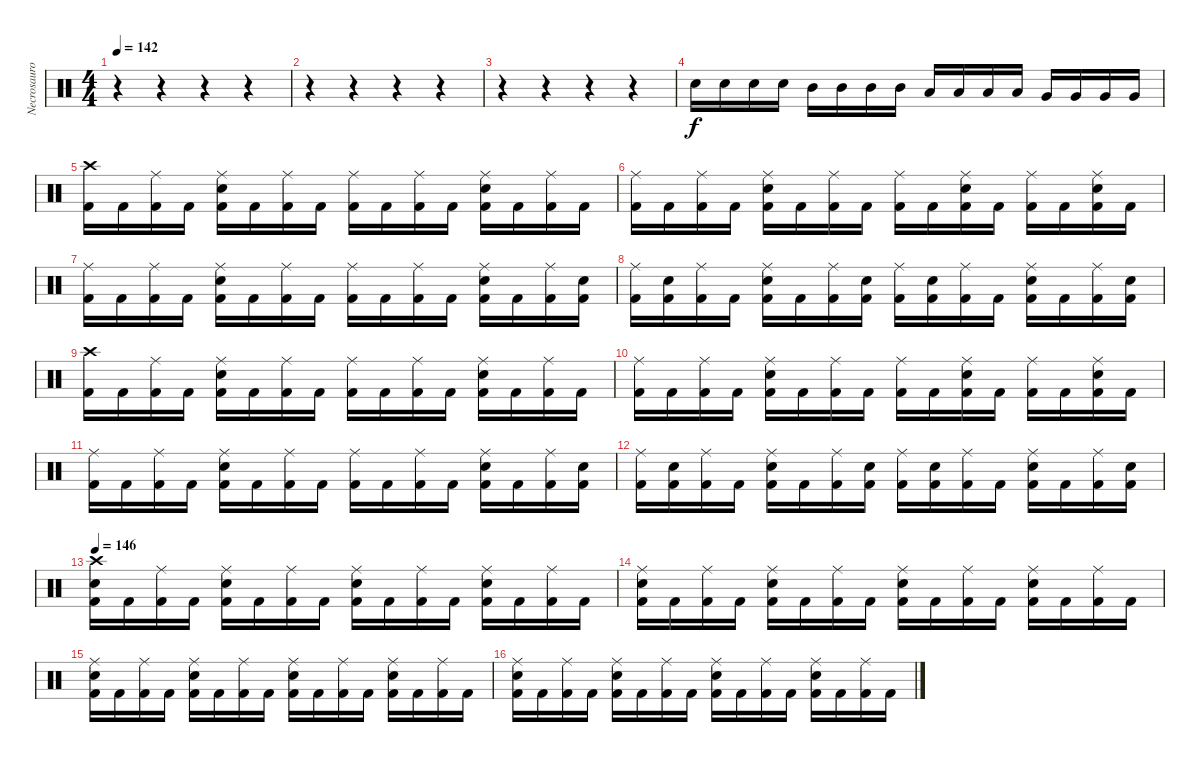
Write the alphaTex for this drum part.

\track ("Necrosauron" "Necrosauro") {instrument percussion}
\staff {score}
\articulation defaults
\ts (4 4)
\tempo 142
\clef neutral
\ks c
r.4{dy f} r.4 r.4 r.4 |
r.4 r.4 r.4 r.4 |
r.4 r.4 r.4 r.4 |
"Snare (hit) 2".16 "Snare (hit) 2".16 "Snare (hit) 2".16 "Snare (hit) 2".16 "Mid Tom (hit)".16 "Mid Tom (hit)".16 "Mid Tom (hit)".16 "Mid Tom (hit)".16 "Low Tom (hit)".16 "Low Tom (hit)".16 "Low Tom (hit)".16 "Low Tom (hit)".16 "Very Low Tom (hit)".16 "Very Low Tom (hit)".16 "Very Low Tom (hit)".16 "Very Low Tom (hit)".16 |
("Crash high (hit)" "Kick (hit) 2").16 "Kick (hit) 2".16 ("Ride (middle)" "Kick (hit) 2").16 "Kick (hit) 2".16 ("Ride (middle)" "Snare (hit) 2" "Kick (hit) 2").16 "Kick (hit) 2".16 ("Ride (middle)" "Kick (hit) 2").16 "Kick (hit) 2".16 ("Ride (middle)" "Kick (hit) 2").16 "Kick (hit) 2".16 ("Ride (middle)" "Kick (hit) 2").16 "Kick (hit) 2".16 ("Ride (middle)" "Snare (hit) 2" "Kick (hit) 2").16 "Kick (hit) 2".16 ("Ride (middle)" "Kick (hit) 2").16 "Kick (hit) 2".16 |
("Ride (middle)" "Kick (hit) 2").16 "Kick (hit) 2".16 ("Ride (middle)" "Kick (hit) 2").16 "Kick (hit) 2".16 ("Ride (middle)" "Snare (hit) 2" "Kick (hit) 2").16 "Kick (hit) 2".16 ("Ride (middle)" "Kick (hit) 2").16 "Kick (hit) 2".16 ("Ride (middle)" "Kick (hit) 2").16 "Kick (hit) 2".16 ("Ride (middle)" "Snare (hit) 2" "Kick (hit) 2").16 "Kick (hit) 2".16 ("Ride (middle)" "Kick (hit) 2").16 "Kick (hit) 2".16 ("Ride (middle)" "Snare (hit) 2" "Kick (hit) 2").16 "Kick (hit) 2".16 |
("Ride (middle)" "Kick (hit) 2").16 "Kick (hit) 2".16 ("Ride (middle)" "Kick (hit) 2").16 "Kick (hit) 2".16 ("Ride (middle)" "Snare (hit) 2" "Kick (hit) 2").16 "Kick (hit) 2".16 ("Ride (middle)" "Kick (hit) 2").16 "Kick (hit) 2".16 ("Ride (middle)" "Kick (hit) 2").16 "Kick (hit) 2".16 ("Ride (middle)" "Kick (hit) 2").16 "Kick (hit) 2".16 ("Ride (middle)" "Snare (hit) 2" "Kick (hit) 2").16 "Kick (hit) 2".16 ("Ride (middle)" "Kick (hit) 2").16 ("Snare (hit) 2" "Kick (hit) 2").16 |
("Ride (middle)" "Kick (hit) 2").16 ("Snare (hit) 2" "Kick (hit) 2").16 ("Ride (middle)" "Kick (hit) 2").16 "Kick (hit) 2".16 ("Ride (middle)" "Snare (hit) 2" "Kick (hit) 2").16 "Kick (hit) 2".16 ("Ride (middle)" "Kick (hit) 2").16 ("Snare (hit) 2" "Kick (hit) 2").16 ("Ride (middle)" "Kick (hit) 2").16 ("Snare (hit) 2" "Kick (hit) 2").16 ("Ride (middle)" "Kick (hit) 2").16 "Kick (hit) 2".16 ("Ride (middle)" "Snare (hit) 2" "Kick (hit) 2").16 "Kick (hit) 2".16 ("Ride (middle)" "Kick (hit) 2").16 ("Snare (hit) 2" "Kick (hit) 2").16 |
("Crash high (hit)" "Kick (hit) 2").16 "Kick (hit) 2".16 ("Ride (middle)" "Kick (hit) 2").16 "Kick (hit) 2".16 ("Ride (middle)" "Snare (hit) 2" "Kick (hit) 2").16 "Kick (hit) 2".16 ("Ride (middle)" "Kick (hit) 2").16 "Kick (hit) 2".16 ("Ride (middle)" "Kick (hit) 2").16 "Kick (hit) 2".16 ("Ride (middle)" "Kick (hit) 2").16 "Kick (hit) 2".16 ("Ride (middle)" "Snare (hit) 2" "Kick (hit) 2").16 "Kick (hit) 2".16 ("Ride (middle)" "Kick (hit) 2").16 "Kick (hit) 2".16 |
("Ride (middle)" "Kick (hit) 2").16 "Kick (hit) 2".16 ("Ride (middle)" "Kick (hit) 2").16 "Kick (hit) 2".16 ("Ride (middle)" "Snare (hit) 2" "Kick (hit) 2").16 "Kick (hit) 2".16 ("Ride (middle)" "Kick (hit) 2").16 "Kick (hit) 2".16 ("Ride (middle)" "Kick (hit) 2").16 "Kick (hit) 2".16 ("Ride (middle)" "Snare (hit) 2" "Kick (hit) 2").16 "Kick (hit) 2".16 ("Ride (middle)" "Kick (hit) 2").16 "Kick (hit) 2".16 ("Ride (middle)" "Snare (hit) 2" "Kick (hit) 2").16 "Kick (hit) 2".16 |
("Ride (middle)" "Kick (hit) 2").16 "Kick (hit) 2".16 ("Ride (middle)" "Kick (hit) 2").16 "Kick (hit) 2".16 ("Ride (middle)" "Snare (hit) 2" "Kick (hit) 2").16 "Kick (hit) 2".16 ("Ride (middle)" "Kick (hit) 2").16 "Kick (hit) 2".16 ("Ride (middle)" "Kick (hit) 2").16 "Kick (hit) 2".16 ("Ride (middle)" "Kick (hit) 2").16 "Kick (hit) 2".16 ("Ride (middle)" "Snare (hit) 2" "Kick (hit) 2").16 "Kick (hit) 2".16 ("Ride (middle)" "Kick (hit) 2").16 ("Snare (hit) 2" "Kick (hit) 2").16 |
("Ride (middle)" "Kick (hit) 2").16 ("Snare (hit) 2" "Kick (hit) 2").16 ("Ride (middle)" "Kick (hit) 2").16 "Kick (hit) 2".16 ("Ride (middle)" "Snare (hit) 2" "Kick (hit) 2").16 "Kick (hit) 2".16 ("Ride (middle)" "Kick (hit) 2").16 ("Snare (hit) 2" "Kick (hit) 2").16 ("Ride (middle)" "Kick (hit) 2").16 ("Snare (hit) 2" "Kick (hit) 2").16 ("Ride (middle)" "Kick (hit) 2").16 "Kick (hit) 2".16 ("Ride (middle)" "Snare (hit) 2" "Kick (hit) 2").16 "Kick (hit) 2".16 ("Ride (middle)" "Kick (hit) 2").16 ("Snare (hit) 2" "Kick (hit) 2").16 |
\tempo 146
("Crash high (hit)" "Snare (hit) 2" "Kick (hit) 2").16 "Kick (hit) 2".16 ("Ride (middle)" "Kick (hit) 2").16 "Kick (hit) 2".16 ("Ride (middle)" "Snare (hit) 2" "Kick (hit) 2").16 "Kick (hit) 2".16 ("Ride (middle)" "Kick (hit) 2").16 "Kick (hit) 2".16 ("Ride (middle)" "Snare (hit) 2" "Kick (hit) 2").16 "Kick (hit) 2".16 ("Ride (middle)" "Kick (hit) 2").16 "Kick (hit) 2".16 ("Ride (middle)" "Snare (hit) 2" "Kick (hit) 2").16 "Kick (hit) 2".16 ("Ride (middle)" "Kick (hit) 2").16 "Kick (hit) 2".16 |
("Ride (middle)" "Snare (hit) 2" "Kick (hit) 2").16 "Kick (hit) 2".16 ("Ride (middle)" "Kick (hit) 2").16 "Kick (hit) 2".16 ("Ride (middle)" "Snare (hit) 2" "Kick (hit) 2").16 "Kick (hit) 2".16 ("Ride (middle)" "Kick (hit) 2").16 "Kick (hit) 2".16 ("Ride (middle)" "Snare (hit) 2" "Kick (hit) 2").16 "Kick (hit) 2".16 ("Ride (middle)" "Kick (hit) 2").16 "Kick (hit) 2".16 ("Ride (middle)" "Snare (hit) 2" "Kick (hit) 2").16 "Kick (hit) 2".16 ("Ride (middle)" "Kick (hit) 2").16 "Kick (hit) 2".16 |
("Ride (middle)" "Snare (hit) 2" "Kick (hit) 2").16 "Kick (hit) 2".16 ("Ride (middle)" "Kick (hit) 2").16 "Kick (hit) 2".16 ("Ride (middle)" "Snare (hit) 2" "Kick (hit) 2").16 "Kick (hit) 2".16 ("Ride (middle)" "Kick (hit) 2").16 "Kick (hit) 2".16 ("Ride (middle)" "Snare (hit) 2" "Kick (hit) 2").16 "Kick (hit) 2".16 ("Ride (middle)" "Kick (hit) 2").16 "Kick (hit) 2".16 ("Ride (middle)" "Snare (hit) 2" "Kick (hit) 2").16 "Kick (hit) 2".16 ("Ride (middle)" "Kick (hit) 2").16 "Kick (hit) 2".16 |
("Ride (middle)" "Snare (hit) 2" "Kick (hit) 2").16 "Kick (hit) 2".16 ("Ride (middle)" "Kick (hit) 2").16 "Kick (hit) 2".16 ("Ride (middle)" "Snare (hit) 2" "Kick (hit) 2").16 "Kick (hit) 2".16 ("Ride (middle)" "Kick (hit) 2").16 "Kick (hit) 2".16 ("Ride (middle)" "Snare (hit) 2" "Kick (hit) 2").16 "Kick (hit) 2".16 ("Ride (middle)" "Kick (hit) 2").16 "Kick (hit) 2".16 ("Ride (middle)" "Snare (hit) 2" "Kick (hit) 2").16 "Kick (hit) 2".16 ("Ride (middle)" "Kick (hit) 2").16 "Kick (hit) 2".16
